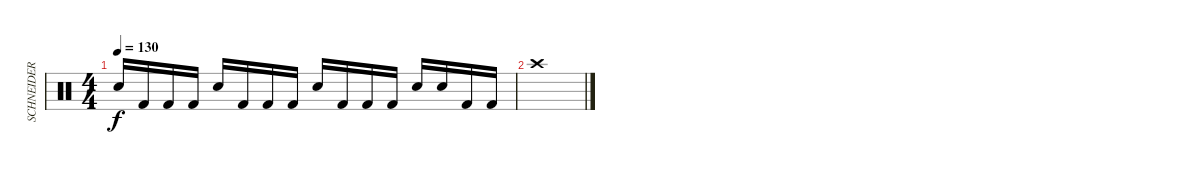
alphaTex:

\track ("SCHNEIDER - Drums" "SCHNEIDER ") {instrument percussion}
\staff {score}
\articulation defaults
\ts (4 4)
\tempo 130
\clef neutral
\ks c "Snare (hit) 2".16{dy f} "Kick (hit) 2".16 "Kick (hit) 2".16 "Kick (hit) 2".16 "Snare (hit) 2".16 "Kick (hit) 2".16 "Kick (hit) 2".16 "Kick (hit) 2".16 "Snare (hit) 2".16 "Kick (hit) 2".16 "Kick (hit) 2".16 "Kick (hit) 2".16 "Snare (hit) 2".16 "Snare (hit) 2".16 "Kick (hit) 2".16 "Kick (hit) 2".16
|
"Crash high (hit)".1
